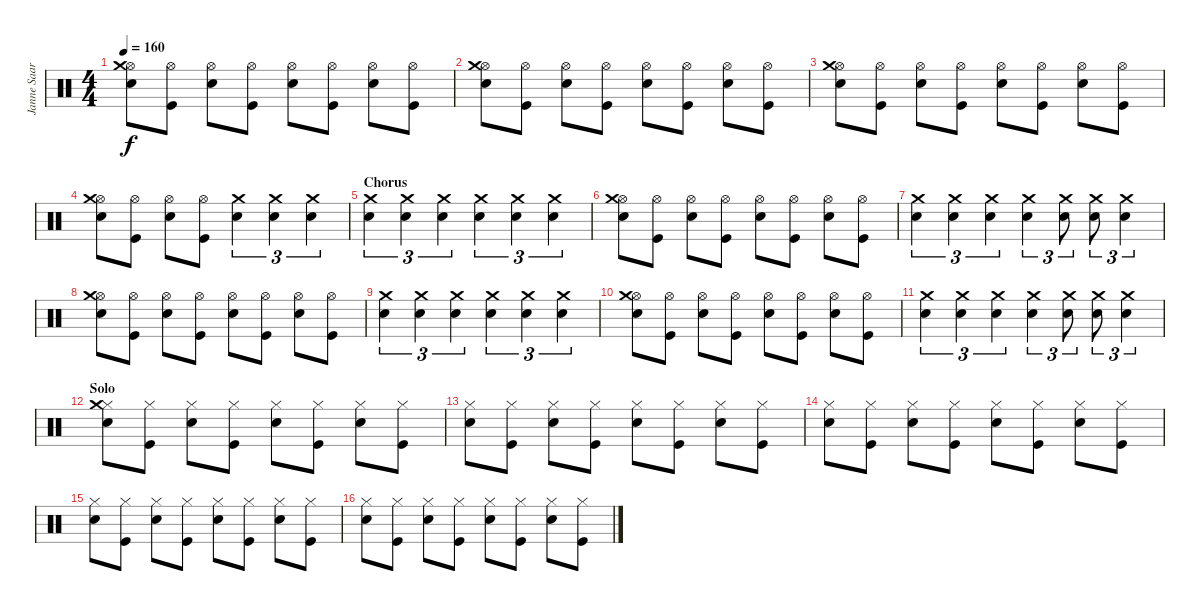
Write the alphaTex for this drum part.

\track ("Janne Saarenpaa" "Janne Saar") {instrument percussion}
\staff {score}
\articulation defaults
\ts (4 4)
\tempo 160
\clef neutral
\ks c
("Hi-Hat (open)" "Snare (hit) 2" "Crash medium (hit)").8{dy f} ("Hi-Hat (open)" "Kick (hit)").8 ("Hi-Hat (open)" "Snare (hit) 2").8 ("Hi-Hat (open)" "Kick (hit)").8 ("Hi-Hat (open)" "Snare (hit) 2").8 ("Hi-Hat (open)" "Kick (hit)").8 ("Hi-Hat (open)" "Snare (hit) 2").8 ("Hi-Hat (open)" "Kick (hit)").8 |
("Hi-Hat (open)" "Snare (hit) 2" "Crash medium (hit)").8 ("Hi-Hat (open)" "Kick (hit)").8 ("Hi-Hat (open)" "Snare (hit) 2").8 ("Hi-Hat (open)" "Kick (hit)").8 ("Hi-Hat (open)" "Snare (hit) 2").8 ("Hi-Hat (open)" "Kick (hit)").8 ("Hi-Hat (open)" "Snare (hit) 2").8 ("Hi-Hat (open)" "Kick (hit)").8 |
("Hi-Hat (open)" "Snare (hit) 2" "Crash medium (hit)").8 ("Hi-Hat (open)" "Kick (hit)").8 ("Hi-Hat (open)" "Snare (hit) 2").8 ("Hi-Hat (open)" "Kick (hit)").8 ("Hi-Hat (open)" "Snare (hit) 2").8 ("Hi-Hat (open)" "Kick (hit)").8 ("Hi-Hat (open)" "Snare (hit) 2").8 ("Hi-Hat (open)" "Kick (hit)").8 |
("Hi-Hat (open)" "Snare (hit) 2" "Crash medium (hit)").8 ("Hi-Hat (open)" "Kick (hit)").8 ("Hi-Hat (open)" "Snare (hit) 2").8 ("Hi-Hat (open)" "Kick (hit)").8 ("Crash medium (hit)" "Snare (hit) 2").4{tu (3 2)} ("Crash medium (hit)" "Snare (hit) 2").4{tu (3 2)} ("Crash medium (hit)" "Snare (hit) 2").4{tu (3 2)} |
\section ("" "Chorus")
("Crash medium (hit)" "Snare (hit) 2").4{tu (3 2)} ("Crash medium (hit)" "Snare (hit) 2").4{tu (3 2)} ("Crash medium (hit)" "Snare (hit) 2").4{tu (3 2)} ("Crash medium (hit)" "Snare (hit) 2").4{tu (3 2)} ("Crash medium (hit)" "Snare (hit) 2").4{tu (3 2)} ("Crash medium (hit)" "Snare (hit) 2").4{tu (3 2)} |
("Hi-Hat (open)" "Snare (hit) 2" "Crash medium (hit)").8 ("Hi-Hat (open)" "Kick (hit)").8 ("Hi-Hat (open)" "Snare (hit) 2").8 ("Hi-Hat (open)" "Kick (hit)").8 ("Hi-Hat (open)" "Snare (hit) 2").8 ("Hi-Hat (open)" "Kick (hit)").8 ("Hi-Hat (open)" "Snare (hit) 2").8 ("Hi-Hat (open)" "Kick (hit)").8 |
("Crash medium (hit)" "Snare (hit) 2").4{tu (3 2)} ("Crash medium (hit)" "Snare (hit) 2").4{tu (3 2)} ("Crash medium (hit)" "Snare (hit) 2").4{tu (3 2)} ("Crash medium (hit)" "Snare (hit) 2").4{tu (3 2)} ("Crash medium (hit)" "Snare (hit) 2").8{tu (3 2)} ("Crash medium (hit)" "Snare (hit) 2").8{tu (3 2)} ("Crash medium (hit)" "Snare (hit) 2").4{tu (3 2)} |
("Hi-Hat (open)" "Snare (hit) 2" "Crash medium (hit)").8 ("Hi-Hat (open)" "Kick (hit)").8 ("Hi-Hat (open)" "Snare (hit) 2").8 ("Hi-Hat (open)" "Kick (hit)").8 ("Hi-Hat (open)" "Snare (hit) 2").8 ("Hi-Hat (open)" "Kick (hit)").8 ("Hi-Hat (open)" "Snare (hit) 2").8 ("Hi-Hat (open)" "Kick (hit)").8 |
("Crash medium (hit)" "Snare (hit) 2").4{tu (3 2)} ("Crash medium (hit)" "Snare (hit) 2").4{tu (3 2)} ("Crash medium (hit)" "Snare (hit) 2").4{tu (3 2)} ("Crash medium (hit)" "Snare (hit) 2").4{tu (3 2)} ("Crash medium (hit)" "Snare (hit) 2").4{tu (3 2)} ("Crash medium (hit)" "Snare (hit) 2").4{tu (3 2)} |
("Hi-Hat (open)" "Snare (hit) 2" "Crash medium (hit)").8 ("Hi-Hat (open)" "Kick (hit)").8 ("Hi-Hat (open)" "Snare (hit) 2").8 ("Hi-Hat (open)" "Kick (hit)").8 ("Hi-Hat (open)" "Snare (hit) 2").8 ("Hi-Hat (open)" "Kick (hit)").8 ("Hi-Hat (open)" "Snare (hit) 2").8 ("Hi-Hat (open)" "Kick (hit)").8 |
("Crash medium (hit)" "Snare (hit) 2").4{tu (3 2)} ("Crash medium (hit)" "Snare (hit) 2").4{tu (3 2)} ("Crash medium (hit)" "Snare (hit) 2").4{tu (3 2)} ("Crash medium (hit)" "Snare (hit) 2").4{tu (3 2)} ("Crash medium (hit)" "Snare (hit) 2").8{tu (3 2)} ("Crash medium (hit)" "Snare (hit) 2").8{tu (3 2)} ("Crash medium (hit)" "Snare (hit) 2").4{tu (3 2)} |
\section ("" "Solo")
("Hi-Hat (closed)" "Snare (hit) 2" "Crash medium (hit)").8 ("Hi-Hat (closed)" "Kick (hit)").8 ("Hi-Hat (closed)" "Snare (hit) 2").8 ("Hi-Hat (closed)" "Kick (hit)").8 ("Hi-Hat (closed)" "Snare (hit) 2").8 ("Hi-Hat (closed)" "Kick (hit)").8 ("Hi-Hat (closed)" "Snare (hit) 2").8 ("Hi-Hat (closed)" "Kick (hit)").8 |
("Hi-Hat (closed)" "Snare (hit) 2").8 ("Hi-Hat (closed)" "Kick (hit)").8 ("Hi-Hat (closed)" "Snare (hit) 2").8 ("Hi-Hat (closed)" "Kick (hit)").8 ("Hi-Hat (closed)" "Snare (hit) 2").8 ("Hi-Hat (closed)" "Kick (hit)").8 ("Hi-Hat (closed)" "Snare (hit) 2").8 ("Hi-Hat (closed)" "Kick (hit)").8 |
("Hi-Hat (closed)" "Snare (hit) 2").8 ("Hi-Hat (closed)" "Kick (hit)").8 ("Hi-Hat (closed)" "Snare (hit) 2").8 ("Hi-Hat (closed)" "Kick (hit)").8 ("Hi-Hat (closed)" "Snare (hit) 2").8 ("Hi-Hat (closed)" "Kick (hit)").8 ("Hi-Hat (closed)" "Snare (hit) 2").8 ("Hi-Hat (closed)" "Kick (hit)").8 |
("Hi-Hat (closed)" "Snare (hit) 2").8 ("Hi-Hat (closed)" "Kick (hit)").8 ("Hi-Hat (closed)" "Snare (hit) 2").8 ("Hi-Hat (closed)" "Kick (hit)").8 ("Hi-Hat (closed)" "Snare (hit) 2").8 ("Hi-Hat (closed)" "Kick (hit)").8 ("Hi-Hat (closed)" "Snare (hit) 2").8 ("Hi-Hat (closed)" "Kick (hit)").8 |
("Hi-Hat (closed)" "Snare (hit) 2").8 ("Hi-Hat (closed)" "Kick (hit)").8 ("Hi-Hat (closed)" "Snare (hit) 2").8 ("Hi-Hat (closed)" "Kick (hit)").8 ("Hi-Hat (closed)" "Snare (hit) 2").8 ("Hi-Hat (closed)" "Kick (hit)").8 ("Hi-Hat (closed)" "Snare (hit) 2").8 ("Hi-Hat (closed)" "Kick (hit)").8
